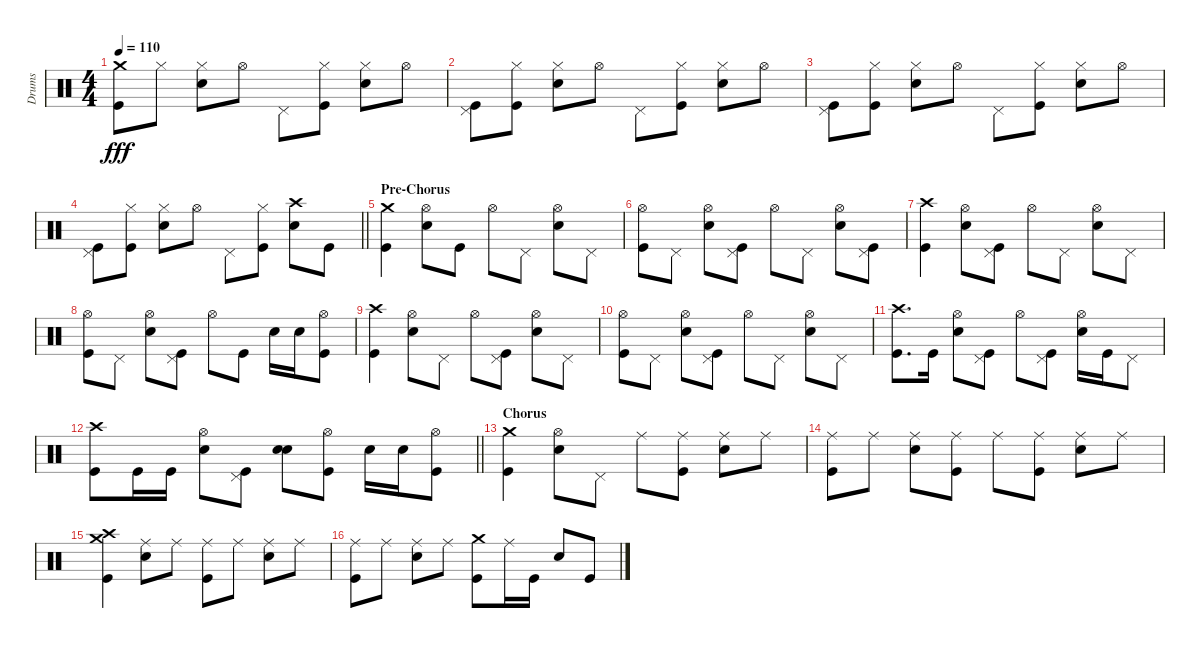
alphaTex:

\track ("Drums" "Drums") {instrument percussion}
\staff {score}
\articulation defaults
\ts (4 4)
\tempo 110
\clef neutral
\ks c
("Crash medium (hit)" "Kick (hit)").8{dy fff} "Hi-Hat (closed)".8 ("Hi-Hat (closed)" "Snare (hit) 2").8 "Hi-Hat (open)".8 "Pedal Hi-Hat (hit)".8 ("Hi-Hat (closed)" "Kick (hit)").8 ("Hi-Hat (closed)" "Snare (hit) 2").8 "Hi-Hat (open)".8 |
("Pedal Hi-Hat (hit)" "Kick (hit)").8 ("Hi-Hat (closed)" "Kick (hit)").8 ("Hi-Hat (closed)" "Snare (hit) 2").8 "Hi-Hat (open)".8 "Pedal Hi-Hat (hit)".8 ("Hi-Hat (closed)" "Kick (hit)").8 ("Hi-Hat (closed)" "Snare (hit) 2").8 "Hi-Hat (open)".8 |
("Pedal Hi-Hat (hit)" "Kick (hit)").8 ("Hi-Hat (closed)" "Kick (hit)").8 ("Hi-Hat (closed)" "Snare (hit) 2").8 "Hi-Hat (open)".8 "Pedal Hi-Hat (hit)".8 ("Hi-Hat (closed)" "Kick (hit)").8 ("Hi-Hat (closed)" "Snare (hit) 2").8 "Hi-Hat (open)".8 |
\barLineRight lightlight
("Pedal Hi-Hat (hit)" "Kick (hit)").8 ("Hi-Hat (closed)" "Kick (hit)").8 ("Hi-Hat (closed)" "Snare (hit) 2").8 "Hi-Hat (open)".8 "Pedal Hi-Hat (hit)".8 ("Hi-Hat (closed)" "Kick (hit)").8 ("Crash high (hit)" "Snare (hit) 2").8 "Kick (hit)".8 |
\section ("" "Pre-Chorus")
("Crash medium (hit)" "Kick (hit)").4 ("Hi-Hat (open)" "Snare (hit) 2").8 "Kick (hit)".8 "Hi-Hat (open)".8 "Pedal Hi-Hat (hit)".8 ("Hi-Hat (open)" "Snare (hit) 2").8 "Pedal Hi-Hat (hit)".8 |
("Hi-Hat (open)" "Kick (hit)").8 "Pedal Hi-Hat (hit)".8 ("Hi-Hat (open)" "Snare (hit) 2").8 ("Pedal Hi-Hat (hit)" "Kick (hit)").8 "Hi-Hat (open)".8 "Pedal Hi-Hat (hit)".8 ("Hi-Hat (open)" "Snare (hit) 2").8 ("Pedal Hi-Hat (hit)" "Kick (hit)").8 |
("Crash high (hit)" "Kick (hit)").4 ("Hi-Hat (open)" "Snare (hit) 2").8 ("Pedal Hi-Hat (hit)" "Kick (hit)").8 "Hi-Hat (open)".8 "Pedal Hi-Hat (hit)".8 ("Hi-Hat (open)" "Snare (hit) 2").8 "Pedal Hi-Hat (hit)".8 |
("Hi-Hat (open)" "Kick (hit)").8 "Pedal Hi-Hat (hit)".8 ("Hi-Hat (open)" "Snare (hit) 2").8 ("Pedal Hi-Hat (hit)" "Kick (hit)").8 "Hi-Hat (open)".8 "Kick (hit)".8 "Snare (hit) 2".16 "Snare (hit) 2".16 ("Hi-Hat (open)" "Kick (hit)").8 |
("Crash high (hit)" "Kick (hit)").4 ("Hi-Hat (open)" "Snare (hit) 2").8 "Pedal Hi-Hat (hit)".8 "Hi-Hat (open)".8 ("Pedal Hi-Hat (hit)" "Kick (hit)").8 ("Hi-Hat (open)" "Snare (hit) 2").8 "Pedal Hi-Hat (hit)".8 |
("Hi-Hat (open)" "Kick (hit)").8 "Pedal Hi-Hat (hit)".8 ("Hi-Hat (open)" "Snare (hit) 2").8 ("Pedal Hi-Hat (hit)" "Kick (hit)").8 "Hi-Hat (open)".8 "Pedal Hi-Hat (hit)".8 ("Hi-Hat (open)" "Snare (hit) 2").8 "Pedal Hi-Hat (hit)".8 |
("Crash high (hit)" "Kick (hit)").8{d} "Kick (hit)".16 ("Hi-Hat (open)" "Snare (hit) 2").8 ("Pedal Hi-Hat (hit)" "Kick (hit)").8 "Hi-Hat (open)".8 ("Pedal Hi-Hat (hit)" "Kick (hit)").8 ("Hi-Hat (open)" "Snare (hit) 2").16 "Kick (hit)".16 "Pedal Hi-Hat (hit)".8 |
\barLineRight lightlight
("Crash high (hit)" "Kick (hit)").8 "Kick (hit)".16 "Kick (hit)".16 ("Hi-Hat (open)" "Snare (hit) 2").8 ("Pedal Hi-Hat (hit)" "Kick (hit)").8 ("Snare (hit) 2" "Snare (hit) 2").8 ("Hi-Hat (open)" "Kick (hit)").8 "Snare (hit) 2".16 "Snare (hit) 2".16 ("Hi-Hat (open)" "Kick (hit)").8 |
\section ("" "Chorus")
("Crash medium (hit)" "Kick (hit)").4 ("Hi-Hat (open)" "Snare (hit) 2").8 "Pedal Hi-Hat (hit)".8 "Ride (middle)".8 ("Ride (middle)" "Kick (hit)").8 ("Ride (middle)" "Snare (hit) 2").8 "Ride (middle)".8 |
("Ride (middle)" "Kick (hit)").8 "Ride (middle)".8 ("Ride (middle)" "Snare (hit) 2").8 ("Ride (middle)" "Kick (hit)").8 "Ride (middle)".8 ("Ride (middle)" "Kick (hit)").8 ("Ride (middle)" "Snare (hit) 2").8 "Ride (middle)".8 |
("Crash medium (hit)" "Crash high (hit)" "Kick (hit)").4 ("Ride (middle)" "Snare (hit) 2").8 "Ride (middle)".8 ("Ride (middle)" "Kick (hit)").8 "Ride (middle)".8 ("Ride (middle)" "Snare (hit) 2").8 "Ride (middle)".8 |
("Ride (middle)" "Kick (hit)").8 "Ride (middle)".8 ("Ride (middle)" "Snare (hit) 2").8 "Ride (middle)".8 ("Crash medium (hit)" "Kick (hit)").8 "Ride (middle)".16 "Kick (hit)".16 "Snare (hit) 2".8 "Kick (hit)".8
